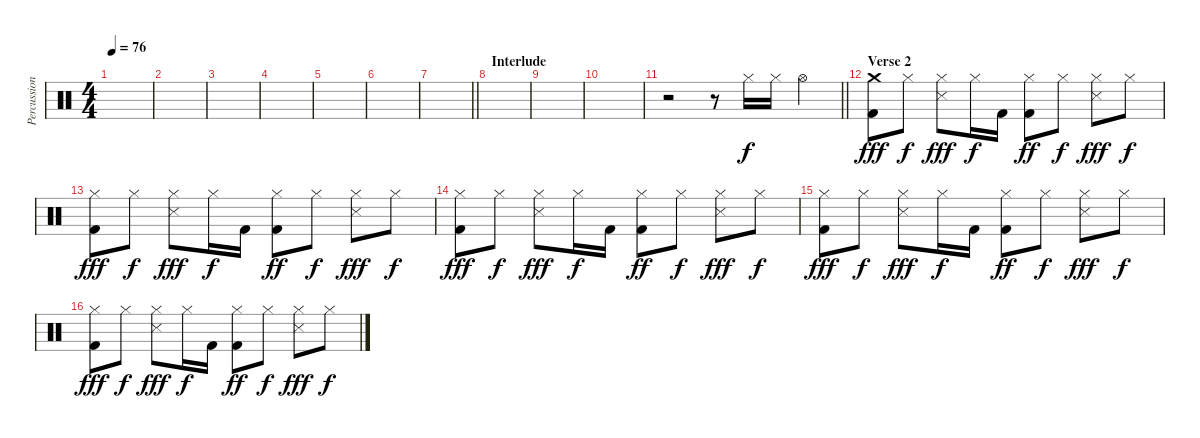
\track ("Percussion" "Percussion") {instrument percussion}
\staff {score}
\articulation defaults
\ts (4 4)
\tempo 76
\clef neutral
\ks c
|
|
|
|
|
|
\barLineRight lightlight
|
\section ("" "Interlude")
|
|
|
\barLineRight lightlight
r.2 r.8 "Hi-Hat (closed)".16 "Hi-Hat (closed)".16 "Hi-Hat (open)".4{dy f} |
\section ("" "Verse 2")
("Crash medium (hit)" "Kick (hit) 2").8{dy fff} "Hi-Hat (closed)".8{dy f} ("Hi-Hat (closed)" "Metronome (hit)").8{dy fff} "Hi-Hat (closed)".16{dy f} "Kick (hit) 2".16 ("Hi-Hat (closed)" "Kick (hit) 2").8{dy ff} "Hi-Hat (closed)".8{dy f} ("Hi-Hat (closed)" "Metronome (hit)").8{dy fff} "Hi-Hat (closed)".8{dy f} |
("Hi-Hat (closed)" "Kick (hit) 2").8{dy fff} "Hi-Hat (closed)".8{dy f} ("Hi-Hat (closed)" "Metronome (hit)").8{dy fff} "Hi-Hat (closed)".16{dy f} "Kick (hit) 2".16 ("Hi-Hat (closed)" "Kick (hit) 2").8{dy ff} "Hi-Hat (closed)".8{dy f} ("Hi-Hat (closed)" "Metronome (hit)").8{dy fff} "Hi-Hat (closed)".8{dy f} |
("Hi-Hat (closed)" "Kick (hit) 2").8{dy fff} "Hi-Hat (closed)".8{dy f} ("Hi-Hat (closed)" "Metronome (hit)").8{dy fff} "Hi-Hat (closed)".16{dy f} "Kick (hit) 2".16 ("Hi-Hat (closed)" "Kick (hit) 2").8{dy ff} "Hi-Hat (closed)".8{dy f} ("Hi-Hat (closed)" "Metronome (hit)").8{dy fff} "Hi-Hat (closed)".8{dy f} |
("Hi-Hat (closed)" "Kick (hit) 2").8{dy fff} "Hi-Hat (closed)".8{dy f} ("Hi-Hat (closed)" "Metronome (hit)").8{dy fff} "Hi-Hat (closed)".16{dy f} "Kick (hit) 2".16 ("Hi-Hat (closed)" "Kick (hit) 2").8{dy ff} "Hi-Hat (closed)".8{dy f} ("Hi-Hat (closed)" "Metronome (hit)").8{dy fff} "Hi-Hat (closed)".8{dy f} |
("Hi-Hat (closed)" "Kick (hit) 2").8{dy fff} "Hi-Hat (closed)".8{dy f} ("Hi-Hat (closed)" "Metronome (hit)").8{dy fff} "Hi-Hat (closed)".16{dy f} "Kick (hit) 2".16 ("Hi-Hat (closed)" "Kick (hit) 2").8{dy ff} "Hi-Hat (closed)".8{dy f} ("Hi-Hat (closed)" "Metronome (hit)").8{dy fff} "Hi-Hat (closed)".8{dy f}
